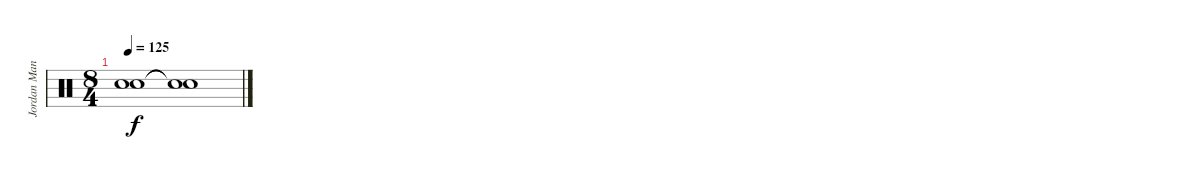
\track ("Jordan Mancino" "Jordan Man") {instrument percussion}
\staff {score}
\articulation defaults
\ts (8 4)
\tempo 125
\clef neutral
\ks c
("Snare (hit)"{t} "Snare (hit)"{t}).1{dy f} ("Snare (hit)"{t} "Snare (hit)"{t}).1
